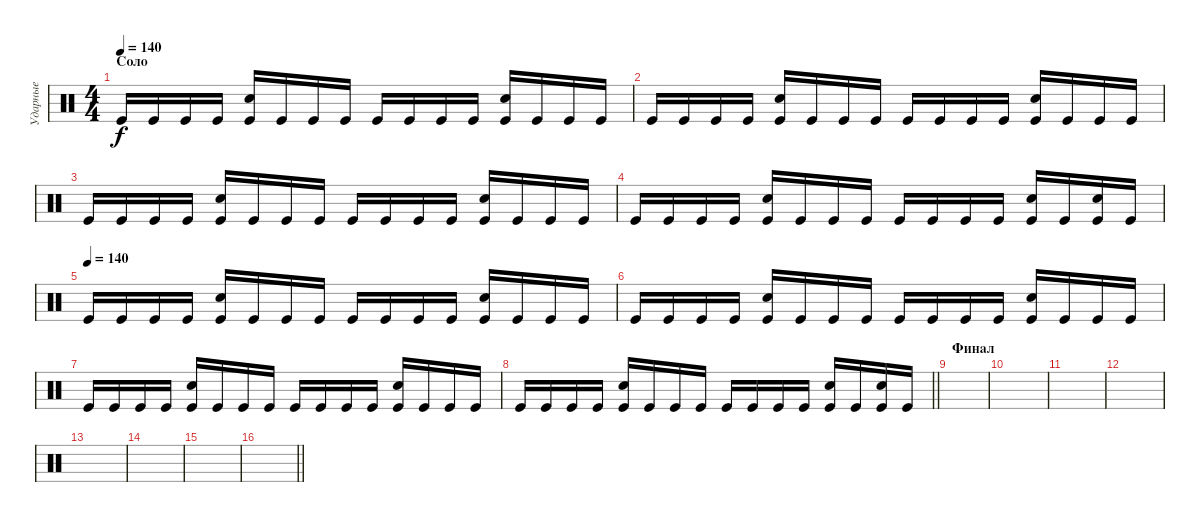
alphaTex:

\track ("Ударные" "Ударные") {instrument percussion}
\staff {score}
\articulation defaults
\ts (4 4)
\section ("" "Соло")
\tempo 140
\clef neutral
\ks c "Kick (hit)".16{dy f} "Kick (hit)".16 "Kick (hit)".16 "Kick (hit)".16
("Kick (hit)" "Electric Snare (hit)").16 "Kick (hit)".16 "Kick (hit)".16 "Kick (hit)".16 "Kick (hit)".16 "Kick (hit)".16 "Kick (hit)".16 "Kick (hit)".16 ("Kick (hit)" "Electric Snare (hit)").16 "Kick (hit)".16 "Kick (hit)".16 "Kick (hit)".16 |
"Kick (hit)".16 "Kick (hit)".16 "Kick (hit)".16 "Kick (hit)".16 ("Kick (hit)" "Electric Snare (hit)").16 "Kick (hit)".16 "Kick (hit)".16 "Kick (hit)".16 "Kick (hit)".16 "Kick (hit)".16 "Kick (hit)".16 "Kick (hit)".16 ("Kick (hit)" "Electric Snare (hit)").16 "Kick (hit)".16 "Kick (hit)".16 "Kick (hit)".16 |
"Kick (hit)".16 "Kick (hit)".16 "Kick (hit)".16 "Kick (hit)".16 ("Kick (hit)" "Electric Snare (hit)").16 "Kick (hit)".16 "Kick (hit)".16 "Kick (hit)".16 "Kick (hit)".16 "Kick (hit)".16 "Kick (hit)".16 "Kick (hit)".16 ("Kick (hit)" "Electric Snare (hit)").16 "Kick (hit)".16 "Kick (hit)".16 "Kick (hit)".16 |
"Kick (hit)".16 "Kick (hit)".16 "Kick (hit)".16 "Kick (hit)".16 ("Kick (hit)" "Electric Snare (hit)").16 "Kick (hit)".16 "Kick (hit)".16 "Kick (hit)".16 "Kick (hit)".16 "Kick (hit)".16 "Kick (hit)".16 "Kick (hit)".16 ("Kick (hit)" "Electric Snare (hit)").16 "Kick (hit)".16 ("Kick (hit)" "Electric Snare (hit)").16 "Kick (hit)".16 |
\tempo (140)
"Kick (hit)".16 "Kick (hit)".16 "Kick (hit)".16 "Kick (hit)".16 ("Kick (hit)" "Electric Snare (hit)").16 "Kick (hit)".16 "Kick (hit)".16 "Kick (hit)".16 "Kick (hit)".16 "Kick (hit)".16 "Kick (hit)".16 "Kick (hit)".16 ("Kick (hit)" "Electric Snare (hit)").16 "Kick (hit)".16 "Kick (hit)".16 "Kick (hit)".16 |
"Kick (hit)".16 "Kick (hit)".16 "Kick (hit)".16 "Kick (hit)".16 ("Kick (hit)" "Electric Snare (hit)").16 "Kick (hit)".16 "Kick (hit)".16 "Kick (hit)".16 "Kick (hit)".16 "Kick (hit)".16 "Kick (hit)".16 "Kick (hit)".16 ("Kick (hit)" "Electric Snare (hit)").16 "Kick (hit)".16 "Kick (hit)".16 "Kick (hit)".16 |
"Kick (hit)".16 "Kick (hit)".16 "Kick (hit)".16 "Kick (hit)".16 ("Kick (hit)" "Electric Snare (hit)").16 "Kick (hit)".16 "Kick (hit)".16 "Kick (hit)".16 "Kick (hit)".16 "Kick (hit)".16 "Kick (hit)".16 "Kick (hit)".16 ("Kick (hit)" "Electric Snare (hit)").16 "Kick (hit)".16 "Kick (hit)".16 "Kick (hit)".16 |
\barLineRight lightlight "Kick (hit)".16 "Kick (hit)".16 "Kick (hit)".16 "Kick (hit)".16
("Kick (hit)" "Electric Snare (hit)").16 "Kick (hit)".16 "Kick (hit)".16 "Kick (hit)".16 "Kick (hit)".16 "Kick (hit)".16 "Kick (hit)".16 "Kick (hit)".16 ("Kick (hit)" "Electric Snare (hit)").16 "Kick (hit)".16 ("Kick (hit)" "Electric Snare (hit)").16 "Kick (hit)".16 |
\section ("" "Финал")
|
|
|
|
|
|
|
\barLineRight lightlight
